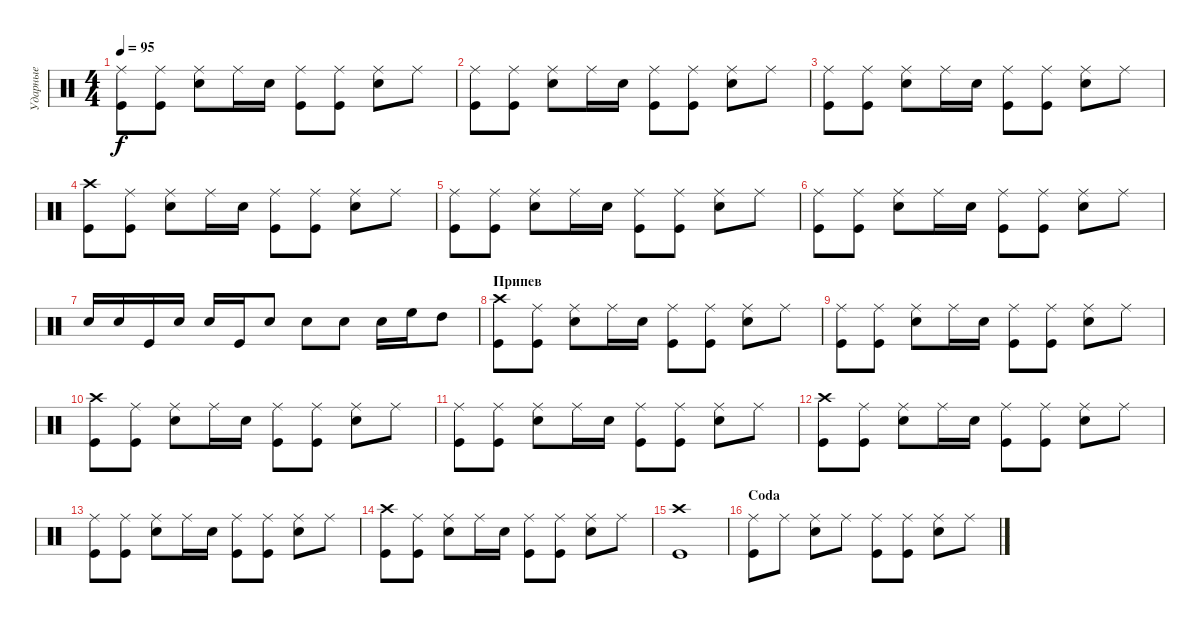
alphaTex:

\track ("Ударные" "Ударные") {instrument percussion}
\staff {score}
\articulation defaults
\ts (4 4)
\tempo 95
\clef neutral
\ks c
("Ride (middle)" "Kick (hit)").8{dy f} ("Ride (middle)" "Kick (hit)").8 ("Ride (middle)" "Snare (hit) 2").8 "Ride (middle)".16 "Snare (hit) 2".16 ("Ride (middle)" "Kick (hit)").8 ("Ride (middle)" "Kick (hit)").8 ("Ride (middle)" "Snare (hit) 2").8 "Ride (middle)".8 |
("Ride (middle)" "Kick (hit)").8 ("Ride (middle)" "Kick (hit)").8 ("Ride (middle)" "Snare (hit) 2").8 "Ride (middle)".16 "Snare (hit) 2".16 ("Ride (middle)" "Kick (hit)").8 ("Ride (middle)" "Kick (hit)").8 ("Ride (middle)" "Snare (hit) 2").8 "Ride (middle)".8 |
("Ride (middle)" "Kick (hit)").8 ("Ride (middle)" "Kick (hit)").8 ("Ride (middle)" "Snare (hit) 2").8 "Ride (middle)".16 "Snare (hit) 2".16 ("Ride (middle)" "Kick (hit)").8 ("Ride (middle)" "Kick (hit)").8 ("Ride (middle)" "Snare (hit) 2").8 "Ride (middle)".8 |
("Crash high (hit)" "Kick (hit)").8 ("Ride (middle)" "Kick (hit)").8 ("Ride (middle)" "Snare (hit) 2").8 "Ride (middle)".16 "Snare (hit) 2".16 ("Ride (middle)" "Kick (hit)").8 ("Ride (middle)" "Kick (hit)").8 ("Ride (middle)" "Snare (hit) 2").8 "Ride (middle)".8 |
("Ride (middle)" "Kick (hit)").8 ("Ride (middle)" "Kick (hit)").8 ("Ride (middle)" "Snare (hit) 2").8 "Ride (middle)".16 "Snare (hit) 2".16 ("Ride (middle)" "Kick (hit)").8 ("Ride (middle)" "Kick (hit)").8 ("Ride (middle)" "Snare (hit) 2").8 "Ride (middle)".8 |
("Ride (middle)" "Kick (hit)").8 ("Ride (middle)" "Kick (hit)").8 ("Ride (middle)" "Snare (hit) 2").8 "Ride (middle)".16 "Snare (hit) 2".16 ("Ride (middle)" "Kick (hit)").8 ("Ride (middle)" "Kick (hit)").8 ("Ride (middle)" "Snare (hit) 2").8 "Ride (middle)".8 |
"Snare (hit) 2".16 "Snare (hit) 2".16 "Kick (hit)".16 "Snare (hit) 2".16 "Snare (hit) 2".16 "Kick (hit)".16 "Snare (hit) 2".8 "Snare (hit) 2".8 "Snare (hit) 2".8 "Snare (hit) 2".16 "High Floor Tom (hit)".16 "High Tom (hit)".8 |
\section ("" "Припев")
("Crash high (hit)" "Kick (hit)").8 ("Ride (middle)" "Kick (hit)").8 ("Ride (middle)" "Snare (hit) 2").8 "Ride (middle)".16 "Snare (hit) 2".16 ("Ride (middle)" "Kick (hit)").8 ("Ride (middle)" "Kick (hit)").8 ("Ride (middle)" "Snare (hit) 2").8 "Ride (middle)".8 |
("Ride (middle)" "Kick (hit)").8 ("Ride (middle)" "Kick (hit)").8 ("Ride (middle)" "Snare (hit) 2").8 "Ride (middle)".16 "Snare (hit) 2".16 ("Ride (middle)" "Kick (hit)").8 ("Ride (middle)" "Kick (hit)").8 ("Ride (middle)" "Snare (hit) 2").8 "Ride (middle)".8 |
("Crash high (hit)" "Kick (hit)").8 ("Ride (middle)" "Kick (hit)").8 ("Ride (middle)" "Snare (hit) 2").8 "Ride (middle)".16 "Snare (hit) 2".16 ("Ride (middle)" "Kick (hit)").8 ("Ride (middle)" "Kick (hit)").8 ("Ride (middle)" "Snare (hit) 2").8 "Ride (middle)".8 |
("Ride (middle)" "Kick (hit)").8 ("Ride (middle)" "Kick (hit)").8 ("Ride (middle)" "Snare (hit) 2").8 "Ride (middle)".16 "Snare (hit) 2".16 ("Ride (middle)" "Kick (hit)").8 ("Ride (middle)" "Kick (hit)").8 ("Ride (middle)" "Snare (hit) 2").8 "Ride (middle)".8 |
("Crash high (hit)" "Kick (hit)").8 ("Ride (middle)" "Kick (hit)").8 ("Ride (middle)" "Snare (hit) 2").8 "Ride (middle)".16 "Snare (hit) 2".16 ("Ride (middle)" "Kick (hit)").8 ("Ride (middle)" "Kick (hit)").8 ("Ride (middle)" "Snare (hit) 2").8 "Ride (middle)".8 |
("Ride (middle)" "Kick (hit)").8 ("Ride (middle)" "Kick (hit)").8 ("Ride (middle)" "Snare (hit) 2").8 "Ride (middle)".16 "Snare (hit) 2".16 ("Ride (middle)" "Kick (hit)").8 ("Ride (middle)" "Kick (hit)").8 ("Ride (middle)" "Snare (hit) 2").8 "Ride (middle)".8 |
("Crash high (hit)" "Kick (hit)").8 ("Ride (middle)" "Kick (hit)").8 ("Ride (middle)" "Snare (hit) 2").8 "Ride (middle)".16 "Snare (hit) 2".16 ("Ride (middle)" "Kick (hit)").8 ("Ride (middle)" "Kick (hit)").8 ("Ride (middle)" "Snare (hit) 2").8 "Ride (middle)".8 |
("Crash high (hit)" "Kick (hit)").1 |
\section ("" "Coda")
("Ride (middle)" "Kick (hit)").8 "Ride (middle)".8 ("Ride (middle)" "Snare (hit) 2").8 "Ride (middle)".8 ("Ride (middle)" "Kick (hit)").8 ("Ride (middle)" "Kick (hit)").8 ("Ride (middle)" "Snare (hit) 2").8 "Ride (middle)".8
